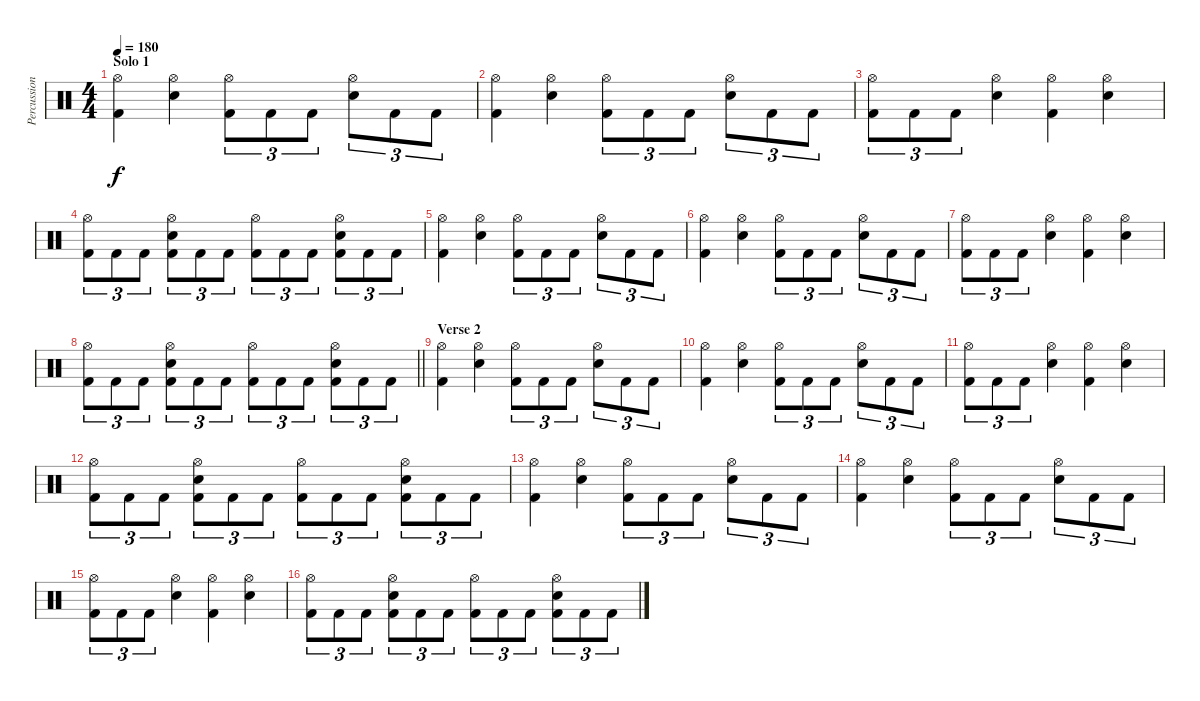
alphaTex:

\track ("Percussion" "Percussion") {instrument percussion}
\staff {score}
\articulation defaults
\ts (4 4)
\section ("" "Solo 1")
\tempo 180
\clef neutral
\ks c
("Hi-Hat (open)" "Kick (hit) 2").4{dy f} ("Hi-Hat (open)" "Snare (hit) 2").4 ("Hi-Hat (open)" "Kick (hit) 2").8{tu (3 2)} "Kick (hit) 2".8{tu (3 2)} "Kick (hit) 2".8{tu (3 2)} ("Hi-Hat (open)" "Snare (hit) 2").8{tu (3 2)} "Kick (hit) 2".8{tu (3 2)} "Kick (hit) 2".8{tu (3 2)} |
("Hi-Hat (open)" "Kick (hit) 2").4 ("Hi-Hat (open)" "Snare (hit) 2").4 ("Hi-Hat (open)" "Kick (hit) 2").8{tu (3 2)} "Kick (hit) 2".8{tu (3 2)} "Kick (hit) 2".8{tu (3 2)} ("Hi-Hat (open)" "Snare (hit) 2").8{tu (3 2)} "Kick (hit) 2".8{tu (3 2)} "Kick (hit) 2".8{tu (3 2)} |
("Hi-Hat (open)" "Kick (hit) 2").8{tu (3 2)} "Kick (hit) 2".8{tu (3 2)} "Kick (hit) 2".8{tu (3 2)} ("Hi-Hat (open)" "Snare (hit) 2").4 ("Hi-Hat (open)" "Kick (hit) 2").4 ("Hi-Hat (open)" "Snare (hit) 2").4 |
("Hi-Hat (open)" "Kick (hit) 2").8{tu (3 2)} "Kick (hit) 2".8{tu (3 2)} "Kick (hit) 2".8{tu (3 2)} ("Hi-Hat (open)" "Snare (hit) 2" "Kick (hit) 2").8{tu (3 2)} "Kick (hit) 2".8{tu (3 2)} "Kick (hit) 2".8{tu (3 2)} ("Hi-Hat (open)" "Kick (hit) 2").8{tu (3 2)} "Kick (hit) 2".8{tu (3 2)} "Kick (hit) 2".8{tu (3 2)} ("Hi-Hat (open)" "Snare (hit) 2" "Kick (hit) 2").8{tu (3 2)} "Kick (hit) 2".8{tu (3 2)} "Kick (hit) 2".8{tu (3 2)} |
("Hi-Hat (open)" "Kick (hit) 2").4 ("Hi-Hat (open)" "Snare (hit) 2").4 ("Hi-Hat (open)" "Kick (hit) 2").8{tu (3 2)} "Kick (hit) 2".8{tu (3 2)} "Kick (hit) 2".8{tu (3 2)} ("Hi-Hat (open)" "Snare (hit) 2").8{tu (3 2)} "Kick (hit) 2".8{tu (3 2)} "Kick (hit) 2".8{tu (3 2)} |
("Hi-Hat (open)" "Kick (hit) 2").4 ("Hi-Hat (open)" "Snare (hit) 2").4 ("Hi-Hat (open)" "Kick (hit) 2").8{tu (3 2)} "Kick (hit) 2".8{tu (3 2)} "Kick (hit) 2".8{tu (3 2)} ("Hi-Hat (open)" "Snare (hit) 2").8{tu (3 2)} "Kick (hit) 2".8{tu (3 2)} "Kick (hit) 2".8{tu (3 2)} |
("Hi-Hat (open)" "Kick (hit) 2").8{tu (3 2)} "Kick (hit) 2".8{tu (3 2)} "Kick (hit) 2".8{tu (3 2)} ("Hi-Hat (open)" "Snare (hit) 2").4 ("Hi-Hat (open)" "Kick (hit) 2").4 ("Hi-Hat (open)" "Snare (hit) 2").4 |
\barLineRight lightlight
("Hi-Hat (open)" "Kick (hit) 2").8{tu (3 2)} "Kick (hit) 2".8{tu (3 2)} "Kick (hit) 2".8{tu (3 2)} ("Hi-Hat (open)" "Snare (hit) 2" "Kick (hit) 2").8{tu (3 2)} "Kick (hit) 2".8{tu (3 2)} "Kick (hit) 2".8{tu (3 2)} ("Hi-Hat (open)" "Kick (hit) 2").8{tu (3 2)} "Kick (hit) 2".8{tu (3 2)} "Kick (hit) 2".8{tu (3 2)} ("Hi-Hat (open)" "Snare (hit) 2" "Kick (hit) 2").8{tu (3 2)} "Kick (hit) 2".8{tu (3 2)} "Kick (hit) 2".8{tu (3 2)} |
\section ("" "Verse 2")
("Hi-Hat (open)" "Kick (hit) 2").4 ("Hi-Hat (open)" "Snare (hit) 2").4 ("Hi-Hat (open)" "Kick (hit) 2").8{tu (3 2)} "Kick (hit) 2".8{tu (3 2)} "Kick (hit) 2".8{tu (3 2)} ("Hi-Hat (open)" "Snare (hit) 2").8{tu (3 2)} "Kick (hit) 2".8{tu (3 2)} "Kick (hit) 2".8{tu (3 2)} |
("Hi-Hat (open)" "Kick (hit) 2").4 ("Hi-Hat (open)" "Snare (hit) 2").4 ("Hi-Hat (open)" "Kick (hit) 2").8{tu (3 2)} "Kick (hit) 2".8{tu (3 2)} "Kick (hit) 2".8{tu (3 2)} ("Hi-Hat (open)" "Snare (hit) 2").8{tu (3 2)} "Kick (hit) 2".8{tu (3 2)} "Kick (hit) 2".8{tu (3 2)} |
("Hi-Hat (open)" "Kick (hit) 2").8{tu (3 2)} "Kick (hit) 2".8{tu (3 2)} "Kick (hit) 2".8{tu (3 2)} ("Hi-Hat (open)" "Snare (hit) 2").4 ("Hi-Hat (open)" "Kick (hit) 2").4 ("Hi-Hat (open)" "Snare (hit) 2").4 |
("Hi-Hat (open)" "Kick (hit) 2").8{tu (3 2)} "Kick (hit) 2".8{tu (3 2)} "Kick (hit) 2".8{tu (3 2)} ("Hi-Hat (open)" "Snare (hit) 2" "Kick (hit) 2").8{tu (3 2)} "Kick (hit) 2".8{tu (3 2)} "Kick (hit) 2".8{tu (3 2)} ("Hi-Hat (open)" "Kick (hit) 2").8{tu (3 2)} "Kick (hit) 2".8{tu (3 2)} "Kick (hit) 2".8{tu (3 2)} ("Hi-Hat (open)" "Snare (hit) 2" "Kick (hit) 2").8{tu (3 2)} "Kick (hit) 2".8{tu (3 2)} "Kick (hit) 2".8{tu (3 2)} |
("Hi-Hat (open)" "Kick (hit) 2").4 ("Hi-Hat (open)" "Snare (hit) 2").4 ("Hi-Hat (open)" "Kick (hit) 2").8{tu (3 2)} "Kick (hit) 2".8{tu (3 2)} "Kick (hit) 2".8{tu (3 2)} ("Hi-Hat (open)" "Snare (hit) 2").8{tu (3 2)} "Kick (hit) 2".8{tu (3 2)} "Kick (hit) 2".8{tu (3 2)} |
("Hi-Hat (open)" "Kick (hit) 2").4 ("Hi-Hat (open)" "Snare (hit) 2").4 ("Hi-Hat (open)" "Kick (hit) 2").8{tu (3 2)} "Kick (hit) 2".8{tu (3 2)} "Kick (hit) 2".8{tu (3 2)} ("Hi-Hat (open)" "Snare (hit) 2").8{tu (3 2)} "Kick (hit) 2".8{tu (3 2)} "Kick (hit) 2".8{tu (3 2)} |
("Hi-Hat (open)" "Kick (hit) 2").8{tu (3 2)} "Kick (hit) 2".8{tu (3 2)} "Kick (hit) 2".8{tu (3 2)} ("Hi-Hat (open)" "Snare (hit) 2").4 ("Hi-Hat (open)" "Kick (hit) 2").4 ("Hi-Hat (open)" "Snare (hit) 2").4 |
("Hi-Hat (open)" "Kick (hit) 2").8{tu (3 2)} "Kick (hit) 2".8{tu (3 2)} "Kick (hit) 2".8{tu (3 2)} ("Hi-Hat (open)" "Snare (hit) 2" "Kick (hit) 2").8{tu (3 2)} "Kick (hit) 2".8{tu (3 2)} "Kick (hit) 2".8{tu (3 2)} ("Hi-Hat (open)" "Kick (hit) 2").8{tu (3 2)} "Kick (hit) 2".8{tu (3 2)} "Kick (hit) 2".8{tu (3 2)} ("Hi-Hat (open)" "Snare (hit) 2" "Kick (hit) 2").8{tu (3 2)} "Kick (hit) 2".8{tu (3 2)} "Kick (hit) 2".8{tu (3 2)}
